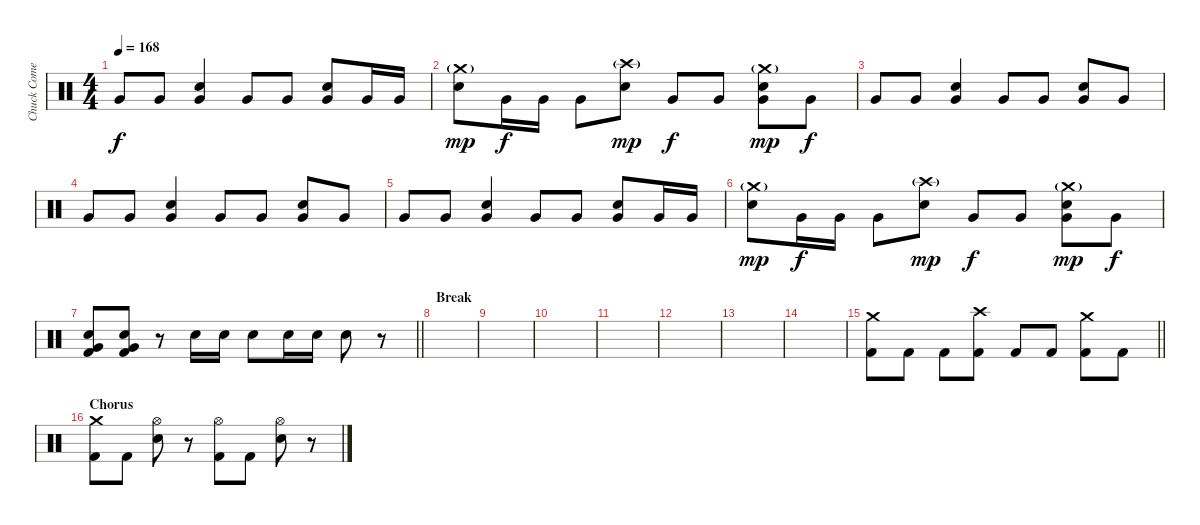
\track ("Chuck Comeau" "Chuck Come") {instrument percussion}
\staff {score}
\articulation defaults
\ts (4 4)
\tempo 168
\clef neutral
\ks c "Very Low Tom (hit)".8{dy f} "Very Low Tom (hit)".8
("Very Low Tom (hit)" "Snare (hit) 2").4 "Very Low Tom (hit)".8 "Very Low Tom (hit)".8 ("Very Low Tom (hit)" "Snare (hit) 2").8 "Very Low Tom (hit)".16 "Very Low Tom (hit)".16 |
("Crash medium (hit)"{g} "Snare (hit) 2").8{dy mp} "Very Low Tom (hit)".16{dy f} "Very Low Tom (hit)".16 "Very Low Tom (hit)".8 ("Crash high (hit)"{g} "Snare (hit) 2").8{dy mp} "Very Low Tom (hit)".8{dy f} "Very Low Tom (hit)".8 ("Crash medium (hit)"{g} "Very Low Tom (hit)" "Snare (hit) 2").8{dy mp} "Very Low Tom (hit)".8{dy f} |
"Very Low Tom (hit)".8 "Very Low Tom (hit)".8 ("Very Low Tom (hit)" "Snare (hit) 2").4 "Very Low Tom (hit)".8 "Very Low Tom (hit)".8 ("Very Low Tom (hit)" "Snare (hit) 2").8 "Very Low Tom (hit)".8 |
"Very Low Tom (hit)".8 "Very Low Tom (hit)".8 ("Very Low Tom (hit)" "Snare (hit) 2").4 "Very Low Tom (hit)".8 "Very Low Tom (hit)".8 ("Very Low Tom (hit)" "Snare (hit) 2").8 "Very Low Tom (hit)".8 |
"Very Low Tom (hit)".8 "Very Low Tom (hit)".8 ("Very Low Tom (hit)" "Snare (hit) 2").4 "Very Low Tom (hit)".8 "Very Low Tom (hit)".8 ("Very Low Tom (hit)" "Snare (hit) 2").8 "Very Low Tom (hit)".16 "Very Low Tom (hit)".16 |
("Crash medium (hit)"{g} "Snare (hit) 2").8{dy mp} "Very Low Tom (hit)".16{dy f} "Very Low Tom (hit)".16 "Very Low Tom (hit)".8 ("Crash high (hit)"{g} "Snare (hit) 2").8{dy mp} "Very Low Tom (hit)".8{dy f} "Very Low Tom (hit)".8 ("Crash medium (hit)"{g} "Very Low Tom (hit)" "Snare (hit) 2").8{dy mp} "Very Low Tom (hit)".8{dy f} |
\barLineRight lightlight
("Very Low Tom (hit)" "Snare (hit) 2" "Kick (hit) 2").8 ("Very Low Tom (hit)" "Snare (hit) 2" "Kick (hit) 2").8 r.8 "Snare (hit) 2".16 "Snare (hit) 2".16 "Snare (hit) 2".8 "Snare (hit) 2".16 "Snare (hit) 2".16 "Snare (hit) 2".8 r.8 |
\section ("" "Break")
|
|
|
|
|
|
|
\barLineRight lightlight
("Crash medium (hit)" "Kick (hit) 2").8 "Kick (hit) 2".8 "Kick (hit) 2".8 ("Crash high (hit)" "Kick (hit) 2").8 "Kick (hit) 2".8 "Kick (hit) 2".8 ("Crash medium (hit)" "Kick (hit) 2").8 "Kick (hit) 2".8 |
\section ("" "Chorus")
("Crash medium (hit)" "Kick (hit) 2").8 "Kick (hit) 2".8 ("Hi-Hat (open)" "Snare (hit) 2").8 r.8 ("Hi-Hat (open)" "Kick (hit) 2").8 "Kick (hit) 2".8 ("Hi-Hat (open)" "Snare (hit) 2").8 r.8
